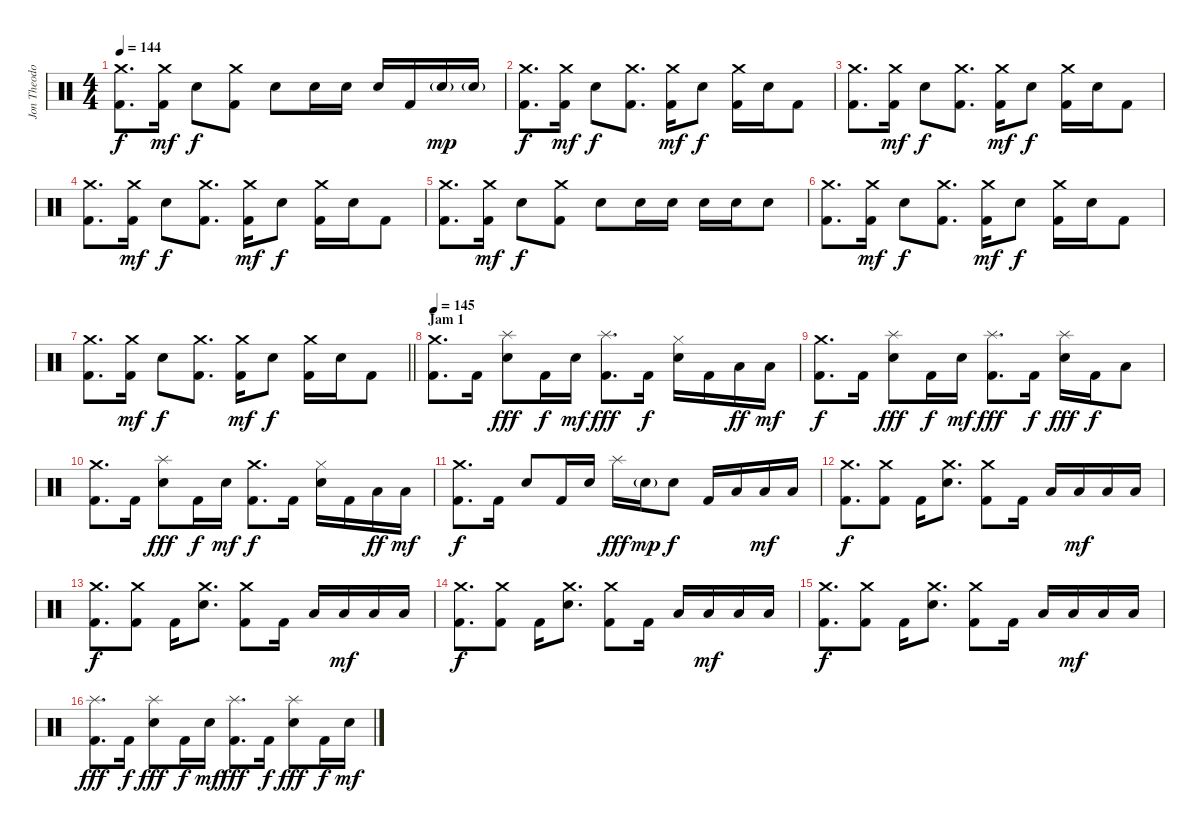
\track ("Jon Theodore - Drums" "Jon Theodo") {instrument percussion}
\staff {score}
\articulation defaults
\ts (4 4)
\tempo 144
\clef neutral
\ks c
("Crash medium (hit)" "Kick (hit) 2").8{d dy f} ("Crash medium (hit)" "Kick (hit) 2").16{dy mf} "Electric Snare (hit)".8{dy f} ("Crash medium (hit)" "Kick (hit) 2").8 "Electric Snare (hit)".8 "Electric Snare (hit)".16 "Electric Snare (hit)".16 "Electric Snare (hit)".16 "Kick (hit) 2".16 "Electric Snare (hit)"{g}.16{dy mp} "Electric Snare (hit)"{g}.16 |
("Crash medium (hit)" "Kick (hit) 2").8{d dy f} ("Crash medium (hit)" "Kick (hit) 2").16{dy mf} "Electric Snare (hit)".8{dy f} ("Crash medium (hit)" "Kick (hit) 2").8{d} ("Crash medium (hit)" "Kick (hit) 2").16{dy mf} "Electric Snare (hit)".8{dy f} ("Crash medium (hit)" "Kick (hit) 2").16 "Electric Snare (hit)".16 "Kick (hit) 2".8 |
("Crash medium (hit)" "Kick (hit) 2").8{d} ("Crash medium (hit)" "Kick (hit) 2").16{dy mf} "Electric Snare (hit)".8{dy f} ("Crash medium (hit)" "Kick (hit) 2").8{d} ("Crash medium (hit)" "Kick (hit) 2").16{dy mf} "Electric Snare (hit)".8{dy f} ("Crash medium (hit)" "Kick (hit) 2").16 "Electric Snare (hit)".16 "Kick (hit) 2".8 |
("Crash medium (hit)" "Kick (hit) 2").8{d} ("Crash medium (hit)" "Kick (hit) 2").16{dy mf} "Electric Snare (hit)".8{dy f} ("Crash medium (hit)" "Kick (hit) 2").8{d} ("Crash medium (hit)" "Kick (hit) 2").16{dy mf} "Electric Snare (hit)".8{dy f} ("Crash medium (hit)" "Kick (hit) 2").16 "Electric Snare (hit)".16 "Kick (hit) 2".8 |
("Crash medium (hit)" "Kick (hit) 2").8{d} ("Crash medium (hit)" "Kick (hit) 2").16{dy mf} "Electric Snare (hit)".8{dy f} ("Crash medium (hit)" "Kick (hit) 2").8 "Electric Snare (hit)".8 "Electric Snare (hit)".16 "Electric Snare (hit)".16 "Electric Snare (hit)".16 "Electric Snare (hit)".16 "Electric Snare (hit)".8 |
("Crash medium (hit)" "Kick (hit) 2").8{d} ("Crash medium (hit)" "Kick (hit) 2").16{dy mf} "Electric Snare (hit)".8{dy f} ("Crash medium (hit)" "Kick (hit) 2").8{d} ("Crash medium (hit)" "Kick (hit) 2").16{dy mf} "Electric Snare (hit)".8{dy f} ("Crash medium (hit)" "Kick (hit) 2").16 "Electric Snare (hit)".16 "Kick (hit) 2".8 |
\barLineRight lightlight
("Crash medium (hit)" "Kick (hit) 2").8{d} ("Crash medium (hit)" "Kick (hit) 2").16{dy mf} "Electric Snare (hit)".8{dy f} ("Crash medium (hit)" "Kick (hit) 2").8{d} ("Crash medium (hit)" "Kick (hit) 2").16{dy mf} "Electric Snare (hit)".8{dy f} ("Crash medium (hit)" "Kick (hit) 2").16 "Electric Snare (hit)".16 "Kick (hit) 2".8 |
\section ("" "Jam 1")
\tempo 145
("Crash medium (hit)" "Kick (hit) 2").8{d} "Kick (hit) 2".16 ("Splash (hit)" "Electric Snare (hit)").8{dy fff} "Kick (hit) 2".16{dy f} "Electric Snare (hit)".16{dy mf} ("Splash (hit)" "Kick (hit) 2").8{d dy fff} "Kick (hit) 2".16{dy f} ("Hi-Hat (closed)" "Electric Snare (hit)").16 "Kick (hit) 2".16 "Low Tom (hit)".16{dy ff} "Low Tom (hit)".16{dy mf} |
("Crash medium (hit)" "Kick (hit) 2").8{d dy f} "Kick (hit) 2".16 ("Splash (hit)" "Electric Snare (hit)").8{dy fff} "Kick (hit) 2".16{dy f} "Electric Snare (hit)".16{dy mf} ("Splash (hit)" "Kick (hit) 2").8{d dy fff} "Kick (hit) 2".16{dy f} ("Splash (hit)" "Electric Snare (hit)").16{dy fff} "Kick (hit) 2".16{dy f} "Low Tom (hit)".8 |
("Crash medium (hit)" "Kick (hit) 2").8{d} "Kick (hit) 2".16 ("Splash (hit)" "Electric Snare (hit)").8{dy fff} "Kick (hit) 2".16{dy f} "Electric Snare (hit)".16{dy mf} ("Crash medium (hit)" "Kick (hit) 2").8{d dy f} "Kick (hit) 2".16 ("Hi-Hat (closed)" "Electric Snare (hit)").16 "Kick (hit) 2".16 "Low Tom (hit)".16{dy ff} "Low Tom (hit)".16{dy mf} |
("Crash medium (hit)" "Kick (hit) 2").8{d dy f} "Kick (hit) 2".16 "Electric Snare (hit)".8 "Kick (hit) 2".16 "Electric Snare (hit)".16 "Splash (hit)".16{dy fff} "Electric Snare (hit)"{g}.16{dy mp} "Electric Snare (hit)".8{dy f} "Kick (hit) 2".16 "Low Tom (hit)".16 "Low Tom (hit)".16{dy mf} "Low Tom (hit)".16 |
("Crash medium (hit)" "Kick (hit) 2").8{d dy f} ("Crash medium (hit)" "Kick (hit) 2").8 "Kick (hit) 2".16 ("Crash medium (hit)" "Electric Snare (hit)").8{d} ("Crash medium (hit)" "Kick (hit) 2").8 "Kick (hit) 2".16 "Low Floor Tom (hit)".16 "Low Floor Tom (hit)".16{dy mf} "Low Floor Tom (hit)".16 "Low Floor Tom (hit)".16 |
("Crash medium (hit)" "Kick (hit) 2").8{d dy f} ("Crash medium (hit)" "Kick (hit) 2").8 "Kick (hit) 2".16 ("Crash medium (hit)" "Electric Snare (hit)").8{d} ("Crash medium (hit)" "Kick (hit) 2").8 "Kick (hit) 2".16 "Low Floor Tom (hit)".16 "Low Floor Tom (hit)".16{dy mf} "Low Floor Tom (hit)".16 "Low Floor Tom (hit)".16 |
("Crash medium (hit)" "Kick (hit) 2").8{d dy f} ("Crash medium (hit)" "Kick (hit) 2").8 "Kick (hit) 2".16 ("Crash medium (hit)" "Electric Snare (hit)").8{d} ("Crash medium (hit)" "Kick (hit) 2").8 "Kick (hit) 2".16 "Low Floor Tom (hit)".16 "Low Floor Tom (hit)".16{dy mf} "Low Floor Tom (hit)".16 "Low Floor Tom (hit)".16 |
("Crash medium (hit)" "Kick (hit) 2").8{d dy f} ("Crash medium (hit)" "Kick (hit) 2").8 "Kick (hit) 2".16 ("Crash medium (hit)" "Electric Snare (hit)").8{d} ("Crash medium (hit)" "Kick (hit) 2").8 "Kick (hit) 2".16 "Low Floor Tom (hit)".16 "Low Floor Tom (hit)".16{dy mf} "Low Floor Tom (hit)".16 "Low Floor Tom (hit)".16 |
("Splash (hit)" "Kick (hit) 2").8{d dy fff} "Kick (hit) 2".16{dy f} ("Splash (hit)" "Electric Snare (hit)").8{dy fff} "Kick (hit) 2".16{dy f} "Electric Snare (hit)".16{dy mf} ("Splash (hit)" "Kick (hit) 2").8{d dy fff} "Kick (hit) 2".16{dy f} ("Splash (hit)" "Electric Snare (hit)").8{dy fff} "Kick (hit) 2".16{dy f} "Electric Snare (hit)".16{dy mf}
